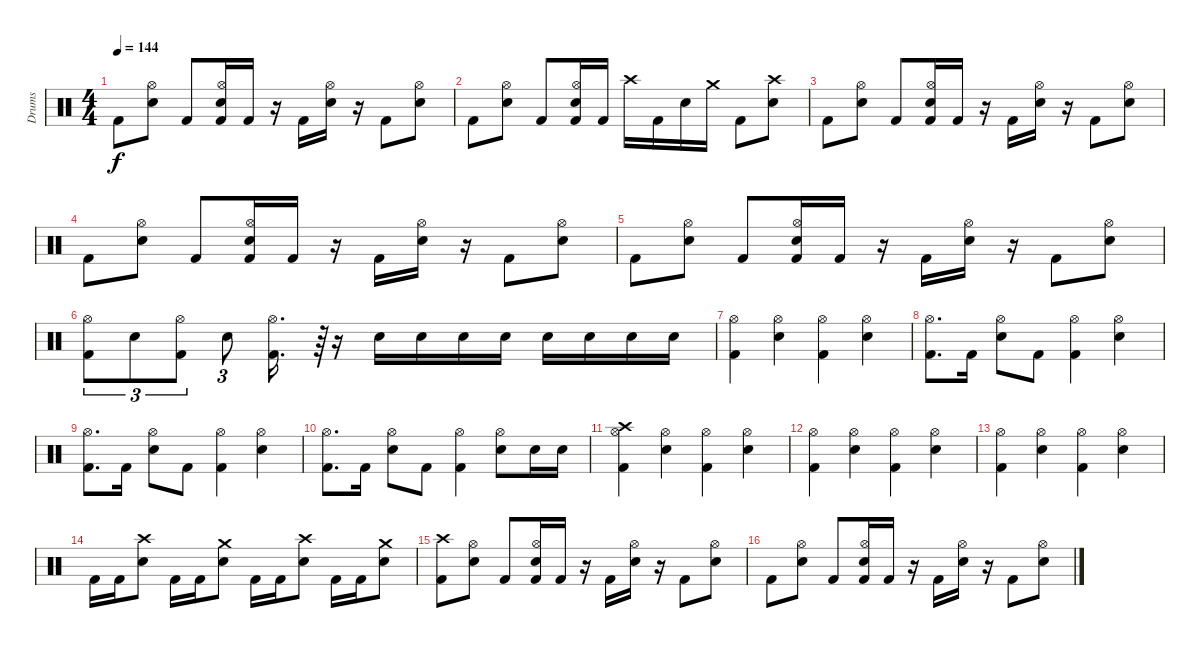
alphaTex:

\track ("Drums" "Drums") {instrument percussion}
\staff {score}
\articulation defaults
\ts (4 4)
\tempo 144
\clef neutral
\ks c "Kick (hit) 2".8{dy f}
("Hi-Hat (open)" "Snare (hit) 2").8 "Kick (hit) 2".8 ("Hi-Hat (open)" "Snare (hit) 2" "Kick (hit) 2").16 "Kick (hit) 2".16 r.16 "Kick (hit) 2".16 ("Hi-Hat (open)" "Snare (hit) 2").16 r.16 "Kick (hit) 2".8 ("Hi-Hat (open)" "Snare (hit) 2").8 |
"Kick (hit) 2".8 ("Hi-Hat (open)" "Snare (hit) 2").8 "Kick (hit) 2".8 ("Hi-Hat (open)" "Snare (hit) 2" "Kick (hit) 2").16 "Kick (hit) 2".16 "Crash high (hit)".16 "Kick (hit) 2".16 "Snare (hit) 2".16 "Crash medium (hit)".16 "Kick (hit) 2".8 ("Crash high (hit)" "Snare (hit) 2").8 |
"Kick (hit) 2".8 ("Hi-Hat (open)" "Snare (hit) 2").8 "Kick (hit) 2".8 ("Hi-Hat (open)" "Snare (hit) 2" "Kick (hit) 2").16 "Kick (hit) 2".16 r.16 "Kick (hit) 2".16 ("Hi-Hat (open)" "Snare (hit) 2").16 r.16 "Kick (hit) 2".8 ("Hi-Hat (open)" "Snare (hit) 2").8 |
"Kick (hit) 2".8 ("Hi-Hat (open)" "Snare (hit) 2").8 "Kick (hit) 2".8 ("Hi-Hat (open)" "Snare (hit) 2" "Kick (hit) 2").16 "Kick (hit) 2".16 r.16 "Kick (hit) 2".16 ("Hi-Hat (open)" "Snare (hit) 2").16 r.16 "Kick (hit) 2".8 ("Hi-Hat (open)" "Snare (hit) 2").8 |
"Kick (hit) 2".8 ("Hi-Hat (open)" "Snare (hit) 2").8 "Kick (hit) 2".8 ("Hi-Hat (open)" "Snare (hit) 2" "Kick (hit) 2").16 "Kick (hit) 2".16 r.16 "Kick (hit) 2".16 ("Hi-Hat (open)" "Snare (hit) 2").16 r.16 "Kick (hit) 2".8 ("Hi-Hat (open)" "Snare (hit) 2").8 |
("Hi-Hat (open)" "Kick (hit) 2").8{tu (3 2)} "Snare (hit) 2".8{tu (3 2)} ("Hi-Hat (open)" "Kick (hit) 2").8{tu (3 2)} "Snare (hit) 2".8{tu (3 2)} ("Hi-Hat (open)" "Kick (hit) 2").16{d} r.64{tu (3 2)} r.16 "Snare (hit) 2".16 "Snare (hit) 2".16 "Snare (hit) 2".16 "Snare (hit) 2".16 "Snare (hit) 2".16 "Snare (hit) 2".16 "Snare (hit) 2".16 "Snare (hit) 2".16 |
("Hi-Hat (open)" "Kick (hit) 2").4 ("Hi-Hat (open)" "Snare (hit) 2").4 ("Hi-Hat (open)" "Kick (hit) 2").4 ("Hi-Hat (open)" "Snare (hit) 2").4 |
("Hi-Hat (open)" "Kick (hit) 2").8{d} "Kick (hit) 2".16 ("Hi-Hat (open)" "Snare (hit) 2").8 "Kick (hit) 2".8 ("Hi-Hat (open)" "Kick (hit) 2").4 ("Hi-Hat (open)" "Snare (hit) 2").4 |
("Hi-Hat (open)" "Kick (hit) 2").8{d} "Kick (hit) 2".16 ("Hi-Hat (open)" "Snare (hit) 2").8 "Kick (hit) 2".8 ("Hi-Hat (open)" "Kick (hit) 2").4 ("Hi-Hat (open)" "Snare (hit) 2").4 |
("Hi-Hat (open)" "Kick (hit) 2").8{d} "Kick (hit) 2".16 ("Hi-Hat (open)" "Snare (hit) 2").8 "Kick (hit) 2".8 ("Hi-Hat (open)" "Kick (hit) 2").4 ("Hi-Hat (open)" "Snare (hit) 2").8 "Snare (hit) 2".16 "Snare (hit) 2".16 |
("Crash high (hit)" "Hi-Hat (open)" "Kick (hit) 2").4 ("Hi-Hat (open)" "Snare (hit) 2").4 ("Hi-Hat (open)" "Kick (hit) 2").4 ("Hi-Hat (open)" "Snare (hit) 2").4 |
("Hi-Hat (open)" "Kick (hit) 2").4 ("Hi-Hat (open)" "Snare (hit) 2").4 ("Hi-Hat (open)" "Kick (hit) 2").4 ("Hi-Hat (open)" "Snare (hit) 2").4 |
("Hi-Hat (open)" "Kick (hit) 2").4 ("Hi-Hat (open)" "Snare (hit) 2").4 ("Hi-Hat (open)" "Kick (hit) 2").4 ("Hi-Hat (open)" "Snare (hit) 2").4 |
"Kick (hit) 2".16 "Kick (hit) 2".16 ("Crash high (hit)" "Snare (hit) 2").8 "Kick (hit) 2".16 "Kick (hit) 2".16 ("Crash medium (hit)" "Snare (hit) 2").8 "Kick (hit) 2".16 "Kick (hit) 2".16 ("Crash high (hit)" "Snare (hit) 2").8 "Kick (hit) 2".16 "Kick (hit) 2".16 ("Crash medium (hit)" "Snare (hit) 2").8 |
("Crash high (hit)" "Kick (hit) 2").8 ("Hi-Hat (open)" "Snare (hit) 2").8 "Kick (hit) 2".8 ("Hi-Hat (open)" "Snare (hit) 2" "Kick (hit) 2").16 "Kick (hit) 2".16 r.16 "Kick (hit) 2".16 ("Hi-Hat (open)" "Snare (hit) 2").16 r.16 "Kick (hit) 2".8 ("Hi-Hat (open)" "Snare (hit) 2").8 |
"Kick (hit) 2".8 ("Hi-Hat (open)" "Snare (hit) 2").8 "Kick (hit) 2".8 ("Hi-Hat (open)" "Snare (hit) 2" "Kick (hit) 2").16 "Kick (hit) 2".16 r.16 "Kick (hit) 2".16 ("Hi-Hat (open)" "Snare (hit) 2").16 r.16 "Kick (hit) 2".8 ("Hi-Hat (open)" "Snare (hit) 2").8
